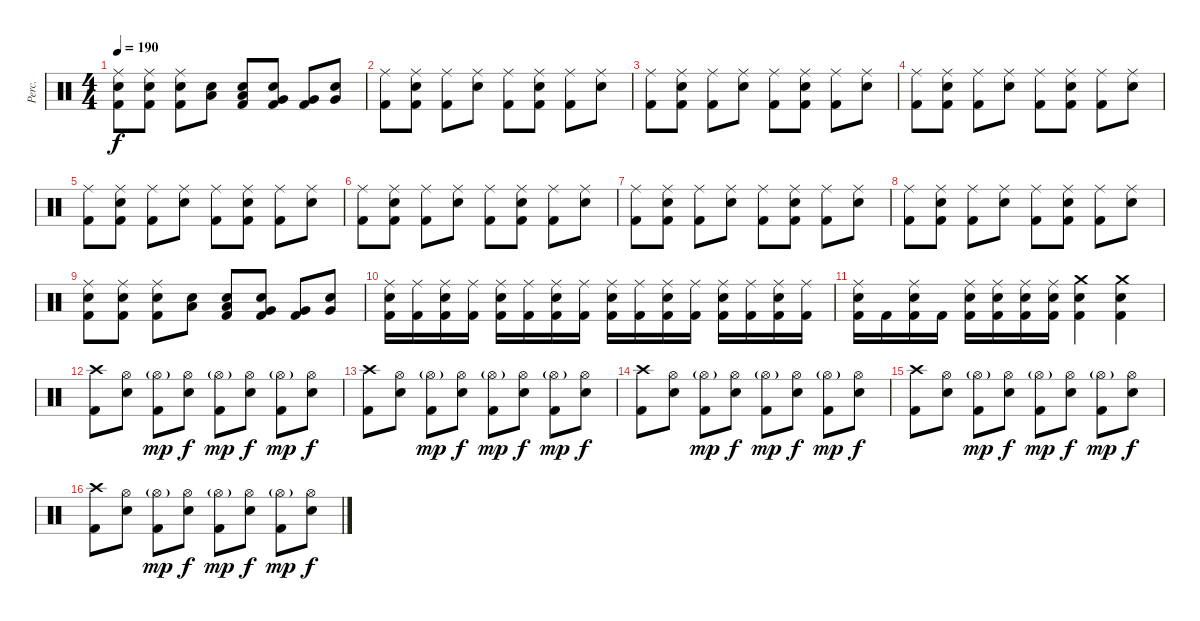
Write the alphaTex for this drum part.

\track ("Perc." "Perc.") {instrument percussion}
\staff {score}
\articulation defaults
\ts (4 4)
\tempo 190
\clef neutral
\ks c
("Kick (hit) 2" "Snare (hit) 2" "Ride (middle)").8{dy f} ("Kick (hit) 2" "Snare (hit) 2" "Ride (middle)").8 ("Kick (hit) 2" "Snare (hit) 2" "Ride (middle)").8 ("Snare (hit) 2" "Low Tom (hit)").8 ("Kick (hit) 2" "Snare (hit) 2" "Low Tom (hit)").8 ("Kick (hit) 2" "Snare (hit) 2" "Very Low Tom (hit)").8 ("Kick (hit) 2" "Very Low Tom (hit)").8 ("Snare (hit) 2" "Very Low Tom (hit)").8 |
("Kick (hit) 2" "Ride (middle)").8 ("Kick (hit) 2" "Snare (hit) 2" "Ride (middle)").8 ("Kick (hit) 2" "Ride (middle)").8 ("Snare (hit) 2" "Ride (middle)").8 ("Kick (hit) 2" "Ride (middle)").8 ("Kick (hit) 2" "Snare (hit) 2" "Ride (middle)").8 ("Kick (hit) 2" "Ride (middle)").8 ("Snare (hit) 2" "Ride (middle)").8 |
("Kick (hit) 2" "Ride (middle)").8 ("Kick (hit) 2" "Snare (hit) 2" "Ride (middle)").8 ("Kick (hit) 2" "Ride (middle)").8 ("Snare (hit) 2" "Ride (middle)").8 ("Kick (hit) 2" "Ride (middle)").8 ("Kick (hit) 2" "Snare (hit) 2" "Ride (middle)").8 ("Kick (hit) 2" "Ride (middle)").8 ("Snare (hit) 2" "Ride (middle)").8 |
("Kick (hit) 2" "Ride (middle)").8 ("Kick (hit) 2" "Snare (hit) 2" "Ride (middle)").8 ("Kick (hit) 2" "Ride (middle)").8 ("Snare (hit) 2" "Ride (middle)").8 ("Kick (hit) 2" "Ride (middle)").8 ("Kick (hit) 2" "Snare (hit) 2" "Ride (middle)").8 ("Kick (hit) 2" "Ride (middle)").8 ("Snare (hit) 2" "Ride (middle)").8 |
("Kick (hit) 2" "Ride (middle)").8 ("Kick (hit) 2" "Snare (hit) 2" "Ride (middle)").8 ("Kick (hit) 2" "Ride (middle)").8 ("Snare (hit) 2" "Ride (middle)").8 ("Kick (hit) 2" "Ride (middle)").8 ("Kick (hit) 2" "Snare (hit) 2" "Ride (middle)").8 ("Kick (hit) 2" "Ride (middle)").8 ("Snare (hit) 2" "Ride (middle)").8 |
("Kick (hit) 2" "Ride (middle)").8 ("Kick (hit) 2" "Snare (hit) 2" "Ride (middle)").8 ("Kick (hit) 2" "Ride (middle)").8 ("Snare (hit) 2" "Ride (middle)").8 ("Kick (hit) 2" "Ride (middle)").8 ("Kick (hit) 2" "Snare (hit) 2" "Ride (middle)").8 ("Kick (hit) 2" "Ride (middle)").8 ("Snare (hit) 2" "Ride (middle)").8 |
("Kick (hit) 2" "Ride (middle)").8 ("Kick (hit) 2" "Snare (hit) 2" "Ride (middle)").8 ("Kick (hit) 2" "Ride (middle)").8 ("Snare (hit) 2" "Ride (middle)").8 ("Kick (hit) 2" "Ride (middle)").8 ("Kick (hit) 2" "Snare (hit) 2" "Ride (middle)").8 ("Kick (hit) 2" "Ride (middle)").8 ("Snare (hit) 2" "Ride (middle)").8 |
("Kick (hit) 2" "Ride (middle)").8 ("Kick (hit) 2" "Snare (hit) 2" "Ride (middle)").8 ("Kick (hit) 2" "Ride (middle)").8 ("Snare (hit) 2" "Ride (middle)").8 ("Kick (hit) 2" "Ride (middle)").8 ("Kick (hit) 2" "Snare (hit) 2" "Ride (middle)").8 ("Kick (hit) 2" "Ride (middle)").8 ("Snare (hit) 2" "Ride (middle)").8 |
("Kick (hit) 2" "Snare (hit) 2" "Ride (middle)").8 ("Kick (hit) 2" "Snare (hit) 2" "Ride (middle)").8 ("Kick (hit) 2" "Snare (hit) 2" "Ride (middle)").8 ("Snare (hit) 2" "Low Tom (hit)").8 ("Kick (hit) 2" "Snare (hit) 2" "Low Tom (hit)").8 ("Kick (hit) 2" "Snare (hit) 2" "Very Low Tom (hit)").8 ("Kick (hit) 2" "Very Low Tom (hit)").8 ("Snare (hit) 2" "Very Low Tom (hit)").8 |
("Snare (hit) 2" "Kick (hit) 2" "Ride (middle)").16 ("Kick (hit) 2" "Ride (middle)").16 ("Snare (hit) 2" "Kick (hit) 2" "Ride (middle)").16 ("Kick (hit) 2" "Ride (middle)").16 ("Snare (hit) 2" "Kick (hit) 2" "Ride (middle)").16 ("Kick (hit) 2" "Ride (middle)").16 ("Snare (hit) 2" "Kick (hit) 2" "Ride (middle)").16 ("Kick (hit) 2" "Ride (middle)").16 ("Snare (hit) 2" "Kick (hit) 2" "Ride (middle)").16 ("Kick (hit) 2" "Ride (middle)").16 ("Snare (hit) 2" "Kick (hit) 2" "Ride (middle)").16 ("Kick (hit) 2" "Ride (middle)").16 ("Snare (hit) 2" "Kick (hit) 2" "Ride (middle)").16 ("Kick (hit) 2" "Ride (middle)").16 ("Snare (hit) 2" "Kick (hit) 2" "Ride (middle)").16 ("Kick (hit) 2" "Ride (middle)").16 |
("Ride (middle)" "Kick (hit) 2" "Snare (hit) 2").16 "Kick (hit) 2".16 ("Ride (middle)" "Kick (hit) 2" "Snare (hit) 2").16 "Kick (hit) 2".16 ("Ride (middle)" "Kick (hit) 2" "Snare (hit) 2").16 ("Ride (middle)" "Kick (hit) 2" "Snare (hit) 2").16 ("Ride (middle)" "Kick (hit) 2" "Snare (hit) 2").16 ("Ride (middle)" "Kick (hit) 2" "Snare (hit) 2").16 ("Kick (hit) 2" "Snare (hit) 2" "Crash medium (hit)").4 ("Kick (hit) 2" "Snare (hit) 2" "Crash medium (hit)").4 |
("Crash high (hit)" "Kick (hit) 2").8 ("Hi-Hat (open)" "Snare (hit) 2").8 ("Hi-Hat (open)"{g} "Kick (hit) 2").8{dy mp} ("Hi-Hat (open)" "Snare (hit) 2").8{dy f} ("Hi-Hat (open)"{g} "Kick (hit) 2").8{dy mp} ("Hi-Hat (open)" "Snare (hit) 2").8{dy f} ("Hi-Hat (open)"{g} "Kick (hit) 2").8{dy mp} ("Hi-Hat (open)" "Snare (hit) 2").8{dy f} |
("Crash high (hit)" "Kick (hit) 2").8 ("Hi-Hat (open)" "Snare (hit) 2").8 ("Hi-Hat (open)"{g} "Kick (hit) 2").8{dy mp} ("Hi-Hat (open)" "Snare (hit) 2").8{dy f} ("Hi-Hat (open)"{g} "Kick (hit) 2").8{dy mp} ("Hi-Hat (open)" "Snare (hit) 2").8{dy f} ("Hi-Hat (open)"{g} "Kick (hit) 2").8{dy mp} ("Hi-Hat (open)" "Snare (hit) 2").8{dy f} |
("Crash high (hit)" "Kick (hit) 2").8 ("Hi-Hat (open)" "Snare (hit) 2").8 ("Hi-Hat (open)"{g} "Kick (hit) 2").8{dy mp} ("Hi-Hat (open)" "Snare (hit) 2").8{dy f} ("Hi-Hat (open)"{g} "Kick (hit) 2").8{dy mp} ("Hi-Hat (open)" "Snare (hit) 2").8{dy f} ("Hi-Hat (open)"{g} "Kick (hit) 2").8{dy mp} ("Hi-Hat (open)" "Snare (hit) 2").8{dy f} |
("Crash high (hit)" "Kick (hit) 2").8 ("Hi-Hat (open)" "Snare (hit) 2").8 ("Hi-Hat (open)"{g} "Kick (hit) 2").8{dy mp} ("Hi-Hat (open)" "Snare (hit) 2").8{dy f} ("Hi-Hat (open)"{g} "Kick (hit) 2").8{dy mp} ("Hi-Hat (open)" "Snare (hit) 2").8{dy f} ("Hi-Hat (open)"{g} "Kick (hit) 2").8{dy mp} ("Hi-Hat (open)" "Snare (hit) 2").8{dy f} |
("Crash high (hit)" "Kick (hit) 2").8 ("Hi-Hat (open)" "Snare (hit) 2").8 ("Hi-Hat (open)"{g} "Kick (hit) 2").8{dy mp} ("Hi-Hat (open)" "Snare (hit) 2").8{dy f} ("Hi-Hat (open)"{g} "Kick (hit) 2").8{dy mp} ("Hi-Hat (open)" "Snare (hit) 2").8{dy f} ("Hi-Hat (open)"{g} "Kick (hit) 2").8{dy mp} ("Hi-Hat (open)" "Snare (hit) 2").8{dy f}
